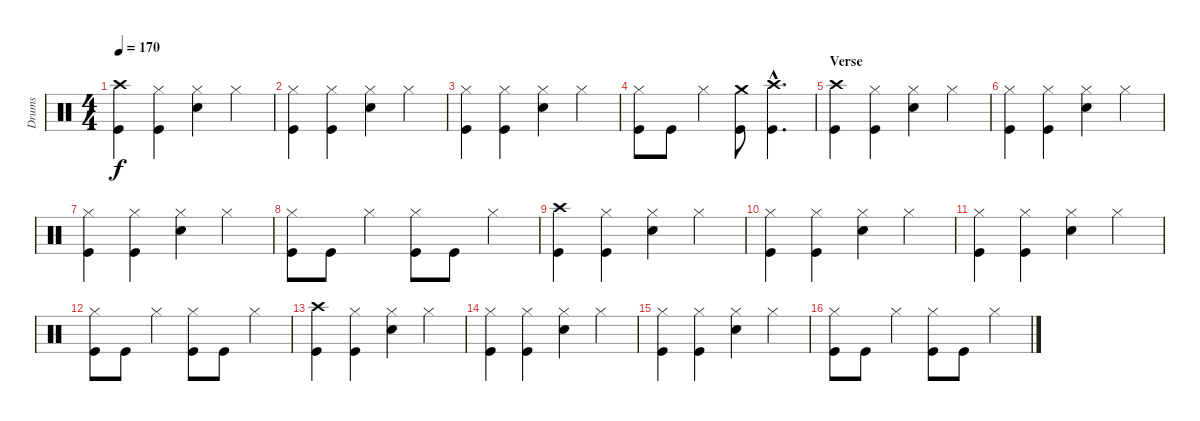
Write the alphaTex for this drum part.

\track ("Drums" "Drums") {instrument percussion}
\staff {score}
\articulation defaults
\ts (4 4)
\tempo 170
\clef neutral
\ks c
("Crash high (hit)" "Kick (hit)").4{dy f} ("Hi-Hat (closed)" "Kick (hit)").4 ("Hi-Hat (closed)" "Snare (hit) 2").4 "Hi-Hat (closed)".4 |
("Hi-Hat (closed)" "Kick (hit)").4 ("Hi-Hat (closed)" "Kick (hit)").4 ("Hi-Hat (closed)" "Snare (hit) 2").4 "Hi-Hat (closed)".4 |
("Hi-Hat (closed)" "Kick (hit)").4 ("Hi-Hat (closed)" "Kick (hit)").4 ("Hi-Hat (closed)" "Snare (hit) 2").4 "Hi-Hat (closed)".4 |
("Hi-Hat (closed)" "Kick (hit)").8 "Kick (hit)".8 "Hi-Hat (closed)".4 ("Crash medium (hit)" "Kick (hit)").8 ("Crash high (hit)"{hac} "Kick (hit)"{hac}).4{d} |
\section ("" "Verse")
("Crash high (hit)" "Kick (hit)").4 ("Hi-Hat (closed)" "Kick (hit)").4 ("Hi-Hat (closed)" "Snare (hit) 2").4 "Hi-Hat (closed)".4 |
("Hi-Hat (closed)" "Kick (hit)").4 ("Hi-Hat (closed)" "Kick (hit)").4 ("Hi-Hat (closed)" "Snare (hit) 2").4 "Hi-Hat (closed)".4 |
("Hi-Hat (closed)" "Kick (hit)").4 ("Hi-Hat (closed)" "Kick (hit)").4 ("Hi-Hat (closed)" "Snare (hit) 2").4 "Hi-Hat (closed)".4 |
("Hi-Hat (closed)" "Kick (hit)").8 "Kick (hit)".8 "Hi-Hat (closed)".4 ("Hi-Hat (closed)" "Kick (hit)").8 "Kick (hit)".8 "Hi-Hat (closed)".4 |
("Crash high (hit)" "Kick (hit)").4 ("Hi-Hat (closed)" "Kick (hit)").4 ("Hi-Hat (closed)" "Snare (hit) 2").4 "Hi-Hat (closed)".4 |
("Hi-Hat (closed)" "Kick (hit)").4 ("Hi-Hat (closed)" "Kick (hit)").4 ("Hi-Hat (closed)" "Snare (hit) 2").4 "Hi-Hat (closed)".4 |
("Hi-Hat (closed)" "Kick (hit)").4 ("Hi-Hat (closed)" "Kick (hit)").4 ("Hi-Hat (closed)" "Snare (hit) 2").4 "Hi-Hat (closed)".4 |
("Hi-Hat (closed)" "Kick (hit)").8 "Kick (hit)".8 "Hi-Hat (closed)".4 ("Hi-Hat (closed)" "Kick (hit)").8 "Kick (hit)".8 "Hi-Hat (closed)".4 |
("Crash high (hit)" "Kick (hit)").4 ("Hi-Hat (closed)" "Kick (hit)").4 ("Hi-Hat (closed)" "Snare (hit) 2").4 "Hi-Hat (closed)".4 |
("Hi-Hat (closed)" "Kick (hit)").4 ("Hi-Hat (closed)" "Kick (hit)").4 ("Hi-Hat (closed)" "Snare (hit) 2").4 "Hi-Hat (closed)".4 |
("Hi-Hat (closed)" "Kick (hit)").4 ("Hi-Hat (closed)" "Kick (hit)").4 ("Hi-Hat (closed)" "Snare (hit) 2").4 "Hi-Hat (closed)".4 |
("Hi-Hat (closed)" "Kick (hit)").8 "Kick (hit)".8 "Hi-Hat (closed)".4 ("Hi-Hat (closed)" "Kick (hit)").8 "Kick (hit)".8 "Hi-Hat (closed)".4
